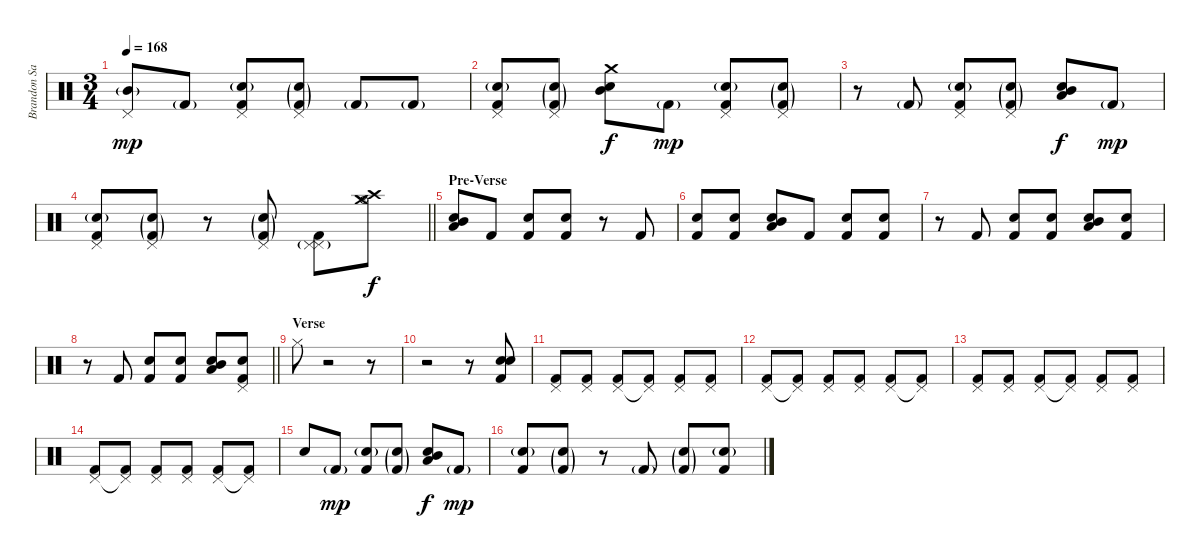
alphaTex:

\track ("Brandon Saller" "Brandon Sa") {instrument percussion}
\staff {score}
\articulation defaults
\ts (3 4)
\tempo 168
\clef neutral
\ks c
("Pedal Hi-Hat (hit)" "Mid Tom (hit)"{g}).8{dy mp} "Kick (hit) 2"{g}.8 ("Pedal Hi-Hat (hit)" "Snare (hit)"{g} "Kick (hit) 2").8 ("Pedal Hi-Hat (hit)" "Snare (hit)"{g} "Kick (hit) 2"{g}).8 "Kick (hit) 2"{g}.8 "Kick (hit) 2"{g}.8 |
("Pedal Hi-Hat (hit)" "Snare (hit)"{g} "Kick (hit) 2").8 ("Pedal Hi-Hat (hit)" "Snare (hit)"{g} "Kick (hit) 2"{g}).8 ("Snare (hit) 2" "Crash medium (hit)" "Mid Tom (hit)").8{dy f} "Kick (hit) 2"{g}.8{dy mp} ("Pedal Hi-Hat (hit)" "Snare (hit)"{g} "Kick (hit) 2").8 ("Pedal Hi-Hat (hit)" "Snare (hit)"{g} "Kick (hit) 2"{g}).8 |
r.8 "Kick (hit) 2"{g}.8 ("Pedal Hi-Hat (hit)" "Snare (hit)"{g} "Kick (hit) 2").8 ("Pedal Hi-Hat (hit)" "Snare (hit)"{g} "Kick (hit) 2"{g}).8 ("Snare (hit) 2" "Low Tom (hit)" "Mid Tom (hit)").8{dy f} "Kick (hit) 2"{g}.8{dy mp} |
\barLineRight lightlight
("Pedal Hi-Hat (hit)" "Snare (hit)"{g} "Kick (hit) 2").8 ("Pedal Hi-Hat (hit)" "Snare (hit)"{g} "Kick (hit) 2"{g}).8 r.8 ("Pedal Hi-Hat (hit)" "Snare (hit)"{g} "Kick (hit) 2"{g}).8 ("Pedal Hi-Hat (hit)" "Pedal Hi-Hat (hit)"{g} "Kick (hit) 2").8 ("Crash medium (hit)" "Crash high (hit)" "Hi-Hat (open)").8{dy f} |
\section ("" "Pre-Verse")
("Snare (hit) 2" "Low Tom (hit)" "Mid Tom (hit)").8 "Kick (hit) 2".8 ("Snare (hit)" "Kick (hit) 2").8 ("Snare (hit)" "Kick (hit) 2").8 r.8 "Kick (hit) 2".8 |
("Snare (hit)" "Kick (hit) 2").8 ("Snare (hit)" "Kick (hit) 2").8 ("Snare (hit) 2" "Low Tom (hit)" "Mid Tom (hit)").8 "Kick (hit) 2".8 ("Snare (hit)" "Kick (hit) 2").8 ("Snare (hit)" "Kick (hit) 2").8 |
r.8 "Kick (hit) 2".8 ("Snare (hit)" "Kick (hit) 2").8 ("Snare (hit)" "Kick (hit) 2").8 ("Snare (hit) 2" "Low Tom (hit)" "Mid Tom (hit)").8 ("Snare (hit) 2" "Kick (hit) 2").8 |
\barLineRight lightlight
r.8 "Kick (hit) 2".8 ("Snare (hit)" "Kick (hit) 2").8 ("Snare (hit)" "Kick (hit) 2").8 ("Snare (hit) 2" "Low Tom (hit)" "Mid Tom (hit)").8 ("Pedal Hi-Hat (hit)" "Snare (hit) 2" "Kick (hit) 2").8 |
\section ("" "Verse")
"Hi-Hat (closed)".8 r.2 r.8 |
r.2 r.8 ("Electric Snare (hit)" "Snare (hit) 2" "Kick (hit) 2").8 |
("Pedal Hi-Hat (hit)" "Kick (hit) 2").8 ("Pedal Hi-Hat (hit)" "Kick (hit) 2").8 ("Pedal Hi-Hat (hit)" "Kick (hit) 2").8 ("Pedal Hi-Hat (hit)"{t} "Kick (hit) 2").8 ("Pedal Hi-Hat (hit)" "Kick (hit) 2").8 ("Pedal Hi-Hat (hit)" "Kick (hit) 2").8 |
("Pedal Hi-Hat (hit)" "Kick (hit) 2").8 ("Pedal Hi-Hat (hit)"{t} "Kick (hit) 2").8 ("Pedal Hi-Hat (hit)" "Kick (hit) 2").8 ("Pedal Hi-Hat (hit)" "Kick (hit) 2").8 ("Pedal Hi-Hat (hit)" "Kick (hit) 2").8 ("Pedal Hi-Hat (hit)"{t} "Kick (hit) 2").8 |
("Pedal Hi-Hat (hit)" "Kick (hit) 2").8 ("Pedal Hi-Hat (hit)" "Kick (hit) 2").8 ("Pedal Hi-Hat (hit)" "Kick (hit) 2").8 ("Pedal Hi-Hat (hit)"{t} "Kick (hit) 2").8 ("Pedal Hi-Hat (hit)" "Kick (hit) 2").8 ("Pedal Hi-Hat (hit)" "Kick (hit) 2").8 |
("Pedal Hi-Hat (hit)" "Kick (hit) 2").8 ("Pedal Hi-Hat (hit)"{t} "Kick (hit) 2").8 ("Pedal Hi-Hat (hit)" "Kick (hit) 2").8 ("Pedal Hi-Hat (hit)" "Kick (hit) 2").8 ("Pedal Hi-Hat (hit)" "Kick (hit) 2").8 ("Pedal Hi-Hat (hit)"{t} "Kick (hit) 2").8 |
"Snare (hit) 2".8 "Kick (hit) 2"{g}.8{dy mp} ("Snare (hit)"{g} "Kick (hit) 2").8 ("Snare (hit)"{g} "Kick (hit) 2"{g}).8 ("Snare (hit) 2" "Low Tom (hit)" "Mid Tom (hit)").8{dy f} "Kick (hit) 2"{g}.8{dy mp} |
("Snare (hit)"{g} "Kick (hit) 2").8 ("Snare (hit)"{g} "Kick (hit) 2"{g}).8 r.8 "Kick (hit) 2"{g}.8 ("Snare (hit)"{g} "Kick (hit) 2"{g}).8 ("Snare (hit)"{g} "Kick (hit) 2").8
